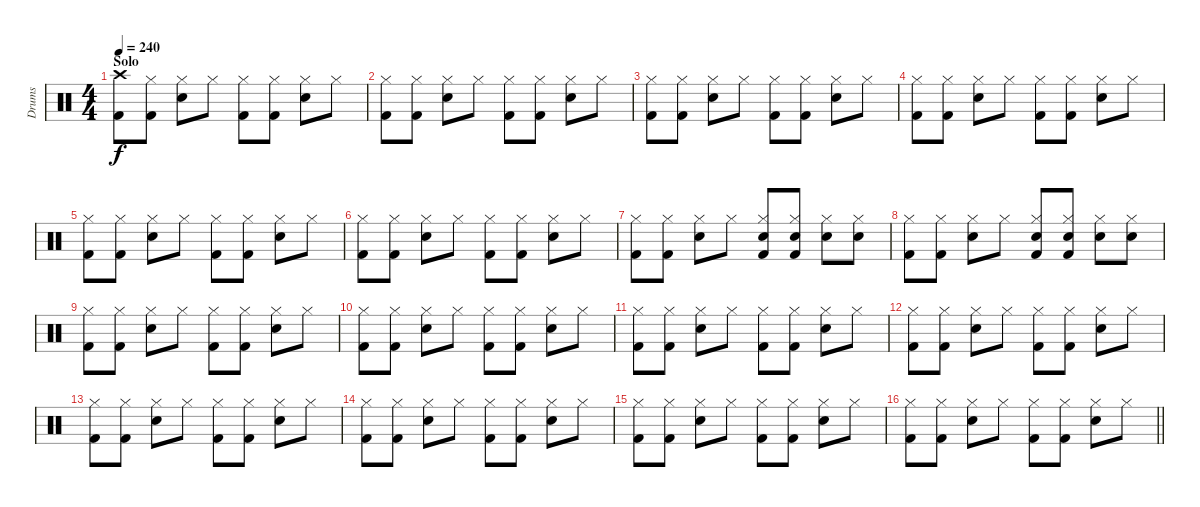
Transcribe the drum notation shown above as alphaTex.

\track ("Drums" "Drums") {instrument percussion}
\staff {score}
\articulation defaults
\ts (4 4)
\section ("" "Solo")
\tempo 240
\clef neutral
\ks c
("Crash high (hit)" "Kick (hit) 2").8{dy f} ("Hi-Hat (closed)" "Kick (hit) 2").8 ("Hi-Hat (closed)" "Snare (hit) 2").8 "Hi-Hat (closed)".8 ("Hi-Hat (closed)" "Kick (hit) 2").8 ("Hi-Hat (closed)" "Kick (hit) 2").8 ("Hi-Hat (closed)" "Snare (hit) 2").8 "Hi-Hat (closed)".8 |
("Hi-Hat (closed)" "Kick (hit) 2").8 ("Hi-Hat (closed)" "Kick (hit) 2").8 ("Hi-Hat (closed)" "Snare (hit) 2").8 "Hi-Hat (closed)".8 ("Hi-Hat (closed)" "Kick (hit) 2").8 ("Hi-Hat (closed)" "Kick (hit) 2").8 ("Hi-Hat (closed)" "Snare (hit) 2").8 "Hi-Hat (closed)".8 |
("Hi-Hat (closed)" "Kick (hit) 2").8 ("Hi-Hat (closed)" "Kick (hit) 2").8 ("Hi-Hat (closed)" "Snare (hit) 2").8 "Hi-Hat (closed)".8 ("Hi-Hat (closed)" "Kick (hit) 2").8 ("Hi-Hat (closed)" "Kick (hit) 2").8 ("Hi-Hat (closed)" "Snare (hit) 2").8 "Hi-Hat (closed)".8 |
("Hi-Hat (closed)" "Kick (hit) 2").8 ("Hi-Hat (closed)" "Kick (hit) 2").8 ("Hi-Hat (closed)" "Snare (hit) 2").8 "Hi-Hat (closed)".8 ("Hi-Hat (closed)" "Kick (hit) 2").8 ("Hi-Hat (closed)" "Kick (hit) 2").8 ("Hi-Hat (closed)" "Snare (hit) 2").8 "Hi-Hat (closed)".8 |
("Hi-Hat (closed)" "Kick (hit) 2").8 ("Hi-Hat (closed)" "Kick (hit) 2").8 ("Hi-Hat (closed)" "Snare (hit) 2").8 "Hi-Hat (closed)".8 ("Hi-Hat (closed)" "Kick (hit) 2").8 ("Hi-Hat (closed)" "Kick (hit) 2").8 ("Hi-Hat (closed)" "Snare (hit) 2").8 "Hi-Hat (closed)".8 |
("Hi-Hat (closed)" "Kick (hit) 2").8 ("Hi-Hat (closed)" "Kick (hit) 2").8 ("Hi-Hat (closed)" "Snare (hit) 2").8 "Hi-Hat (closed)".8 ("Hi-Hat (closed)" "Kick (hit) 2").8 ("Hi-Hat (closed)" "Kick (hit) 2").8 ("Hi-Hat (closed)" "Snare (hit) 2").8 "Hi-Hat (closed)".8 |
("Hi-Hat (closed)" "Kick (hit) 2").8 ("Hi-Hat (closed)" "Kick (hit) 2").8 ("Hi-Hat (closed)" "Snare (hit) 2").8 "Hi-Hat (closed)".8 ("Hi-Hat (closed)" "Snare (hit) 2" "Kick (hit) 2").8 ("Hi-Hat (closed)" "Snare (hit) 2" "Kick (hit) 2").8 ("Hi-Hat (closed)" "Snare (hit) 2").8 ("Hi-Hat (closed)" "Snare (hit) 2").8 |
("Hi-Hat (closed)" "Kick (hit) 2").8 ("Hi-Hat (closed)" "Kick (hit) 2").8 ("Hi-Hat (closed)" "Snare (hit) 2").8 "Hi-Hat (closed)".8 ("Hi-Hat (closed)" "Snare (hit) 2" "Kick (hit) 2").8 ("Hi-Hat (closed)" "Snare (hit) 2" "Kick (hit) 2").8 ("Hi-Hat (closed)" "Snare (hit) 2").8 ("Hi-Hat (closed)" "Snare (hit) 2").8 |
("Hi-Hat (closed)" "Kick (hit) 2").8 ("Hi-Hat (closed)" "Kick (hit) 2").8 ("Hi-Hat (closed)" "Snare (hit) 2").8 "Hi-Hat (closed)".8 ("Hi-Hat (closed)" "Kick (hit) 2").8 ("Hi-Hat (closed)" "Kick (hit) 2").8 ("Hi-Hat (closed)" "Snare (hit) 2").8 "Hi-Hat (closed)".8 |
("Hi-Hat (closed)" "Kick (hit) 2").8 ("Hi-Hat (closed)" "Kick (hit) 2").8 ("Hi-Hat (closed)" "Snare (hit) 2").8 "Hi-Hat (closed)".8 ("Hi-Hat (closed)" "Kick (hit) 2").8 ("Hi-Hat (closed)" "Kick (hit) 2").8 ("Hi-Hat (closed)" "Snare (hit) 2").8 "Hi-Hat (closed)".8 |
("Hi-Hat (closed)" "Kick (hit) 2").8 ("Hi-Hat (closed)" "Kick (hit) 2").8 ("Hi-Hat (closed)" "Snare (hit) 2").8 "Hi-Hat (closed)".8 ("Hi-Hat (closed)" "Kick (hit) 2").8 ("Hi-Hat (closed)" "Kick (hit) 2").8 ("Hi-Hat (closed)" "Snare (hit) 2").8 "Hi-Hat (closed)".8 |
("Hi-Hat (closed)" "Kick (hit) 2").8 ("Hi-Hat (closed)" "Kick (hit) 2").8 ("Hi-Hat (closed)" "Snare (hit) 2").8 "Hi-Hat (closed)".8 ("Hi-Hat (closed)" "Kick (hit) 2").8 ("Hi-Hat (closed)" "Kick (hit) 2").8 ("Hi-Hat (closed)" "Snare (hit) 2").8 "Hi-Hat (closed)".8 |
("Hi-Hat (closed)" "Kick (hit) 2").8 ("Hi-Hat (closed)" "Kick (hit) 2").8 ("Hi-Hat (closed)" "Snare (hit) 2").8 "Hi-Hat (closed)".8 ("Hi-Hat (closed)" "Kick (hit) 2").8 ("Hi-Hat (closed)" "Kick (hit) 2").8 ("Hi-Hat (closed)" "Snare (hit) 2").8 "Hi-Hat (closed)".8 |
("Hi-Hat (closed)" "Kick (hit) 2").8 ("Hi-Hat (closed)" "Kick (hit) 2").8 ("Hi-Hat (closed)" "Snare (hit) 2").8 "Hi-Hat (closed)".8 ("Hi-Hat (closed)" "Kick (hit) 2").8 ("Hi-Hat (closed)" "Kick (hit) 2").8 ("Hi-Hat (closed)" "Snare (hit) 2").8 "Hi-Hat (closed)".8 |
("Hi-Hat (closed)" "Kick (hit) 2").8 ("Hi-Hat (closed)" "Kick (hit) 2").8 ("Hi-Hat (closed)" "Snare (hit) 2").8 "Hi-Hat (closed)".8 ("Hi-Hat (closed)" "Kick (hit) 2").8 ("Hi-Hat (closed)" "Kick (hit) 2").8 ("Hi-Hat (closed)" "Snare (hit) 2").8 "Hi-Hat (closed)".8 |
\barLineRight lightlight
("Hi-Hat (closed)" "Kick (hit) 2").8 ("Hi-Hat (closed)" "Kick (hit) 2").8 ("Hi-Hat (closed)" "Snare (hit) 2").8 "Hi-Hat (closed)".8 ("Hi-Hat (closed)" "Kick (hit) 2").8 ("Hi-Hat (closed)" "Kick (hit) 2").8 ("Hi-Hat (closed)" "Snare (hit) 2").8 "Hi-Hat (closed)".8
